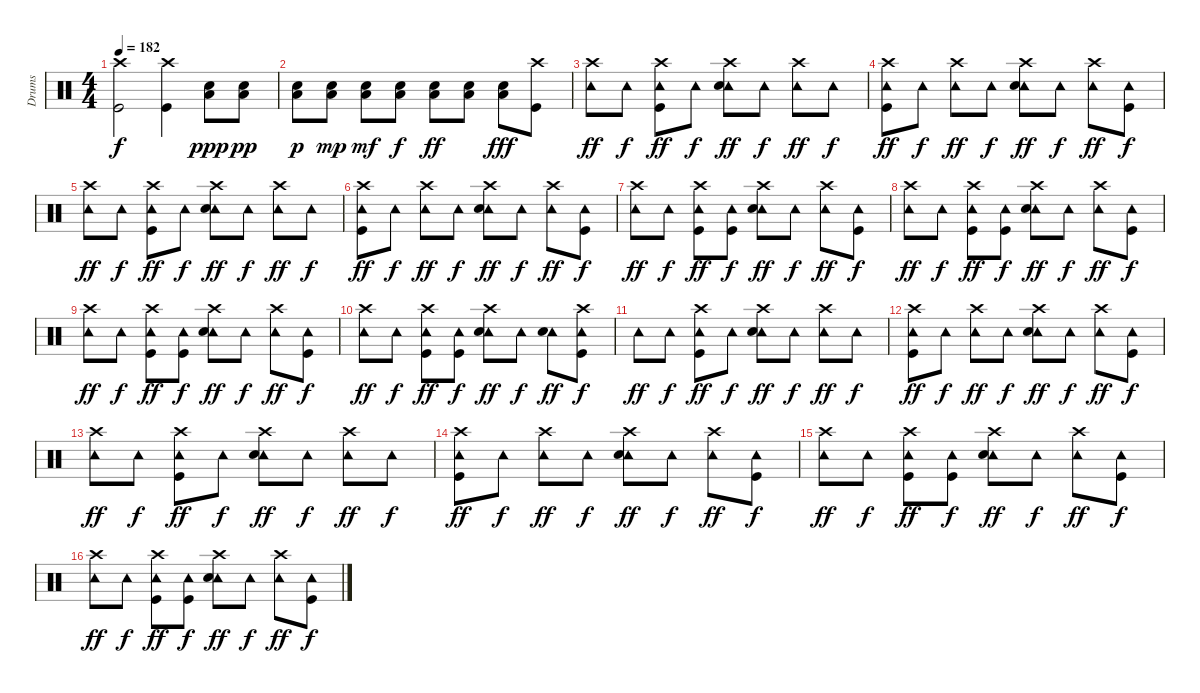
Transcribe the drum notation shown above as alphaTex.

\track ("Drums" "Drums") {instrument percussion}
\staff {score}
\articulation defaults
\ts (4 4)
\tempo 182
\clef neutral
\ks c
("Crash high (hit)" "Kick (hit)").2{dy f} ("Kick (hit)" "Crash high (hit)").4 ("Low Floor Tom (hit)" "Electric Snare (hit)").8{dy ppp} ("Electric Snare (hit)" "Low Floor Tom (hit)").8{dy pp} |
("Low Floor Tom (hit)" "Electric Snare (hit)").8{dy p} ("Low Floor Tom (hit)" "Electric Snare (hit)").8{dy mp} ("Low Floor Tom (hit)" "Electric Snare (hit)").8{dy mf} ("Low Floor Tom (hit)" "Electric Snare (hit)").8{dy f} ("Low Floor Tom (hit)" "Electric Snare (hit)").8{dy ff} ("Low Floor Tom (hit)" "Electric Snare (hit)").8 ("Low Floor Tom (hit)" "Electric Snare (hit)").8{dy fff} ("Crash high (hit)" "Kick (hit)").8 |
("Tambourine (hit)" "Crash high (hit)").8{dy ff} "Tambourine (hit)".8{dy f} ("Tambourine (hit)" "Crash high (hit)" "Kick (hit)").8{dy ff} "Tambourine (hit)".8{dy f} ("Tambourine (hit)" "Crash high (hit)" "Electric Snare (hit)").8{dy ff} "Tambourine (hit)".8{dy f} ("Tambourine (hit)" "Crash high (hit)").8{dy ff} "Tambourine (hit)".8{dy f} |
("Tambourine (hit)" "Kick (hit)" "Crash high (hit)").8{dy ff} "Tambourine (hit)".8{dy f} ("Tambourine (hit)" "Crash high (hit)").8{dy ff} "Tambourine (hit)".8{dy f} ("Tambourine (hit)" "Crash high (hit)" "Electric Snare (hit)").8{dy ff} "Tambourine (hit)".8{dy f} ("Tambourine (hit)" "Crash high (hit)").8{dy ff} ("Tambourine (hit)" "Kick (hit)").8{dy f} |
("Tambourine (hit)" "Crash high (hit)").8{dy ff} "Tambourine (hit)".8{dy f} ("Tambourine (hit)" "Crash high (hit)" "Kick (hit)").8{dy ff} "Tambourine (hit)".8{dy f} ("Tambourine (hit)" "Crash high (hit)" "Electric Snare (hit)").8{dy ff} "Tambourine (hit)".8{dy f} ("Tambourine (hit)" "Crash high (hit)").8{dy ff} "Tambourine (hit)".8{dy f} |
("Tambourine (hit)" "Kick (hit)" "Crash high (hit)").8{dy ff} "Tambourine (hit)".8{dy f} ("Tambourine (hit)" "Crash high (hit)").8{dy ff} "Tambourine (hit)".8{dy f} ("Tambourine (hit)" "Crash high (hit)" "Electric Snare (hit)").8{dy ff} "Tambourine (hit)".8{dy f} ("Tambourine (hit)" "Crash high (hit)").8{dy ff} ("Tambourine (hit)" "Kick (hit)").8{dy f} |
("Tambourine (hit)" "Crash high (hit)").8{dy ff} "Tambourine (hit)".8{dy f} ("Tambourine (hit)" "Crash high (hit)" "Kick (hit)").8{dy ff} ("Tambourine (hit)" "Kick (hit)").8{dy f} ("Tambourine (hit)" "Crash high (hit)" "Electric Snare (hit)").8{dy ff} "Tambourine (hit)".8{dy f} ("Tambourine (hit)" "Crash high (hit)").8{dy ff} ("Tambourine (hit)" "Kick (hit)").8{dy f} |
("Tambourine (hit)" "Crash high (hit)").8{dy ff} "Tambourine (hit)".8{dy f} ("Tambourine (hit)" "Crash high (hit)" "Kick (hit)").8{dy ff} ("Tambourine (hit)" "Kick (hit)").8{dy f} ("Tambourine (hit)" "Crash high (hit)" "Electric Snare (hit)").8{dy ff} "Tambourine (hit)".8{dy f} ("Tambourine (hit)" "Crash high (hit)").8{dy ff} ("Tambourine (hit)" "Kick (hit)").8{dy f} |
("Tambourine (hit)" "Crash high (hit)").8{dy ff} "Tambourine (hit)".8{dy f} ("Tambourine (hit)" "Crash high (hit)" "Kick (hit)").8{dy ff} ("Tambourine (hit)" "Kick (hit)").8{dy f} ("Tambourine (hit)" "Crash high (hit)" "Electric Snare (hit)").8{dy ff} "Tambourine (hit)".8{dy f} ("Tambourine (hit)" "Crash high (hit)").8{dy ff} ("Tambourine (hit)" "Kick (hit)").8{dy f} |
("Tambourine (hit)" "Crash high (hit)").8{dy ff} "Tambourine (hit)".8{dy f} ("Tambourine (hit)" "Crash high (hit)" "Kick (hit)").8{dy ff} ("Tambourine (hit)" "Kick (hit)").8{dy f} ("Tambourine (hit)" "Crash high (hit)" "Electric Snare (hit)").8{dy ff} "Tambourine (hit)".8{dy f} ("Tambourine (hit)" "Electric Snare (hit)").8{dy ff} ("Tambourine (hit)" "Crash high (hit)" "Kick (hit)").8{dy f} |
"Tambourine (hit)".8{dy ff} "Tambourine (hit)".8{dy f} ("Tambourine (hit)" "Crash high (hit)" "Kick (hit)").8{dy ff} "Tambourine (hit)".8{dy f} ("Tambourine (hit)" "Crash high (hit)" "Electric Snare (hit)").8{dy ff} "Tambourine (hit)".8{dy f} ("Tambourine (hit)" "Crash high (hit)").8{dy ff} "Tambourine (hit)".8{dy f} |
("Tambourine (hit)" "Kick (hit)" "Crash high (hit)").8{dy ff} "Tambourine (hit)".8{dy f} ("Tambourine (hit)" "Crash high (hit)").8{dy ff} "Tambourine (hit)".8{dy f} ("Tambourine (hit)" "Crash high (hit)" "Electric Snare (hit)").8{dy ff} "Tambourine (hit)".8{dy f} ("Tambourine (hit)" "Crash high (hit)").8{dy ff} ("Tambourine (hit)" "Kick (hit)").8{dy f} |
("Tambourine (hit)" "Crash high (hit)").8{dy ff} "Tambourine (hit)".8{dy f} ("Tambourine (hit)" "Crash high (hit)" "Kick (hit)").8{dy ff} "Tambourine (hit)".8{dy f} ("Tambourine (hit)" "Crash high (hit)" "Electric Snare (hit)").8{dy ff} "Tambourine (hit)".8{dy f} ("Tambourine (hit)" "Crash high (hit)").8{dy ff} "Tambourine (hit)".8{dy f} |
("Tambourine (hit)" "Kick (hit)" "Crash high (hit)").8{dy ff} "Tambourine (hit)".8{dy f} ("Tambourine (hit)" "Crash high (hit)").8{dy ff} "Tambourine (hit)".8{dy f} ("Tambourine (hit)" "Crash high (hit)" "Electric Snare (hit)").8{dy ff} "Tambourine (hit)".8{dy f} ("Tambourine (hit)" "Crash high (hit)").8{dy ff} ("Tambourine (hit)" "Kick (hit)").8{dy f} |
("Tambourine (hit)" "Crash high (hit)").8{dy ff} "Tambourine (hit)".8{dy f} ("Tambourine (hit)" "Crash high (hit)" "Kick (hit)").8{dy ff} ("Tambourine (hit)" "Kick (hit)").8{dy f} ("Tambourine (hit)" "Crash high (hit)" "Electric Snare (hit)").8{dy ff} "Tambourine (hit)".8{dy f} ("Tambourine (hit)" "Crash high (hit)").8{dy ff} ("Tambourine (hit)" "Kick (hit)").8{dy f} |
("Tambourine (hit)" "Crash high (hit)").8{dy ff} "Tambourine (hit)".8{dy f} ("Tambourine (hit)" "Crash high (hit)" "Kick (hit)").8{dy ff} ("Tambourine (hit)" "Kick (hit)").8{dy f} ("Tambourine (hit)" "Crash high (hit)" "Electric Snare (hit)").8{dy ff} "Tambourine (hit)".8{dy f} ("Tambourine (hit)" "Crash high (hit)").8{dy ff} ("Tambourine (hit)" "Kick (hit)").8{dy f}
